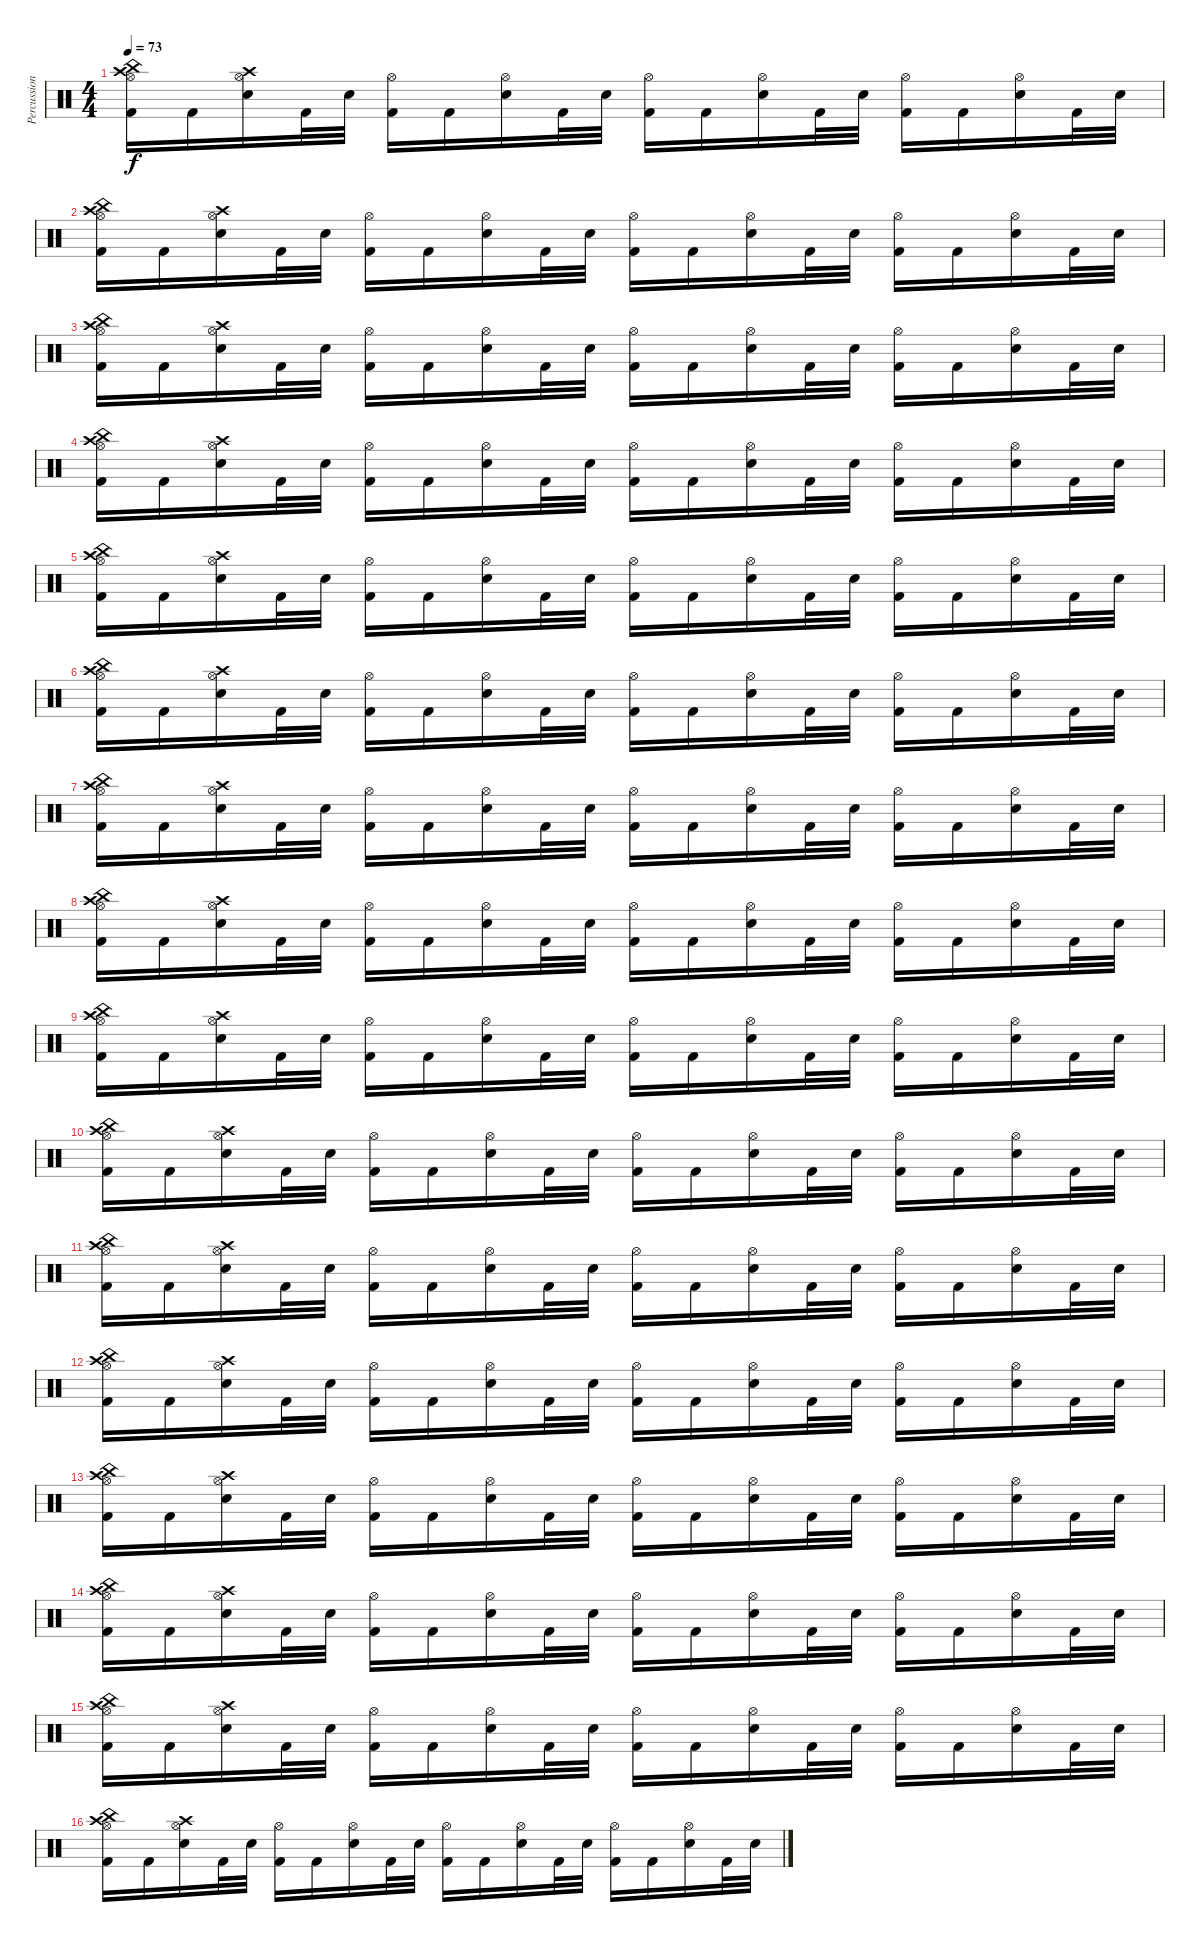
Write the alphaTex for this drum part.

\track ("Percussion" "Percussion") {instrument percussion}
\staff {score}
\articulation defaults
\ts (4 4)
\tempo 73
\clef neutral
\ks c
("China (hit)" "Crash high (hit)" "Hi-Hat (open)" "Kick (hit) 2").16{dy f} "Kick (hit) 2".16 ("Crash high (hit)" "Hi-Hat (open)" "Electric Snare (hit)").16 "Kick (hit) 2".32 "Electric Snare (hit)".32 ("Hi-Hat (open)" "Kick (hit) 2").16 "Kick (hit) 2".16 ("Hi-Hat (open)" "Electric Snare (hit)").16 "Kick (hit) 2".32 "Electric Snare (hit)".32 ("Hi-Hat (open)" "Kick (hit) 2").16 "Kick (hit) 2".16 ("Hi-Hat (open)" "Electric Snare (hit)").16 "Kick (hit) 2".32 "Electric Snare (hit)".32 ("Hi-Hat (open)" "Kick (hit) 2").16 "Kick (hit) 2".16 ("Hi-Hat (open)" "Electric Snare (hit)").16 "Kick (hit) 2".32 "Electric Snare (hit)".32 |
("China (hit)" "Crash high (hit)" "Hi-Hat (open)" "Kick (hit) 2").16 "Kick (hit) 2".16 ("Crash high (hit)" "Hi-Hat (open)" "Electric Snare (hit)").16 "Kick (hit) 2".32 "Electric Snare (hit)".32 ("Hi-Hat (open)" "Kick (hit) 2").16 "Kick (hit) 2".16 ("Hi-Hat (open)" "Electric Snare (hit)").16 "Kick (hit) 2".32 "Electric Snare (hit)".32 ("Hi-Hat (open)" "Kick (hit) 2").16 "Kick (hit) 2".16 ("Hi-Hat (open)" "Electric Snare (hit)").16 "Kick (hit) 2".32 "Electric Snare (hit)".32 ("Hi-Hat (open)" "Kick (hit) 2").16 "Kick (hit) 2".16 ("Hi-Hat (open)" "Electric Snare (hit)").16 "Kick (hit) 2".32 "Electric Snare (hit)".32 |
("China (hit)" "Crash high (hit)" "Hi-Hat (open)" "Kick (hit) 2").16 "Kick (hit) 2".16 ("Crash high (hit)" "Hi-Hat (open)" "Electric Snare (hit)").16 "Kick (hit) 2".32 "Electric Snare (hit)".32 ("Hi-Hat (open)" "Kick (hit) 2").16 "Kick (hit) 2".16 ("Hi-Hat (open)" "Electric Snare (hit)").16 "Kick (hit) 2".32 "Electric Snare (hit)".32 ("Hi-Hat (open)" "Kick (hit) 2").16 "Kick (hit) 2".16 ("Hi-Hat (open)" "Electric Snare (hit)").16 "Kick (hit) 2".32 "Electric Snare (hit)".32 ("Hi-Hat (open)" "Kick (hit) 2").16 "Kick (hit) 2".16 ("Hi-Hat (open)" "Electric Snare (hit)").16 "Kick (hit) 2".32 "Electric Snare (hit)".32 |
("China (hit)" "Crash high (hit)" "Hi-Hat (open)" "Kick (hit) 2").16 "Kick (hit) 2".16 ("Crash high (hit)" "Hi-Hat (open)" "Electric Snare (hit)").16 "Kick (hit) 2".32 "Electric Snare (hit)".32 ("Hi-Hat (open)" "Kick (hit) 2").16 "Kick (hit) 2".16 ("Hi-Hat (open)" "Electric Snare (hit)").16 "Kick (hit) 2".32 "Electric Snare (hit)".32 ("Hi-Hat (open)" "Kick (hit) 2").16 "Kick (hit) 2".16 ("Hi-Hat (open)" "Electric Snare (hit)").16 "Kick (hit) 2".32 "Electric Snare (hit)".32 ("Hi-Hat (open)" "Kick (hit) 2").16 "Kick (hit) 2".16 ("Hi-Hat (open)" "Electric Snare (hit)").16 "Kick (hit) 2".32 "Electric Snare (hit)".32 |
("China (hit)" "Crash high (hit)" "Hi-Hat (open)" "Kick (hit) 2").16 "Kick (hit) 2".16 ("Crash high (hit)" "Hi-Hat (open)" "Electric Snare (hit)").16 "Kick (hit) 2".32 "Electric Snare (hit)".32 ("Hi-Hat (open)" "Kick (hit) 2").16 "Kick (hit) 2".16 ("Hi-Hat (open)" "Electric Snare (hit)").16 "Kick (hit) 2".32 "Electric Snare (hit)".32 ("Hi-Hat (open)" "Kick (hit) 2").16 "Kick (hit) 2".16 ("Hi-Hat (open)" "Electric Snare (hit)").16 "Kick (hit) 2".32 "Electric Snare (hit)".32 ("Hi-Hat (open)" "Kick (hit) 2").16 "Kick (hit) 2".16 ("Hi-Hat (open)" "Electric Snare (hit)").16 "Kick (hit) 2".32 "Electric Snare (hit)".32 |
("China (hit)" "Crash high (hit)" "Hi-Hat (open)" "Kick (hit) 2").16 "Kick (hit) 2".16 ("Crash high (hit)" "Hi-Hat (open)" "Electric Snare (hit)").16 "Kick (hit) 2".32 "Electric Snare (hit)".32 ("Hi-Hat (open)" "Kick (hit) 2").16 "Kick (hit) 2".16 ("Hi-Hat (open)" "Electric Snare (hit)").16 "Kick (hit) 2".32 "Electric Snare (hit)".32 ("Hi-Hat (open)" "Kick (hit) 2").16 "Kick (hit) 2".16 ("Hi-Hat (open)" "Electric Snare (hit)").16 "Kick (hit) 2".32 "Electric Snare (hit)".32 ("Hi-Hat (open)" "Kick (hit) 2").16 "Kick (hit) 2".16 ("Hi-Hat (open)" "Electric Snare (hit)").16 "Kick (hit) 2".32 "Electric Snare (hit)".32 |
("China (hit)" "Crash high (hit)" "Hi-Hat (open)" "Kick (hit) 2").16 "Kick (hit) 2".16 ("Crash high (hit)" "Hi-Hat (open)" "Electric Snare (hit)").16 "Kick (hit) 2".32 "Electric Snare (hit)".32 ("Hi-Hat (open)" "Kick (hit) 2").16 "Kick (hit) 2".16 ("Hi-Hat (open)" "Electric Snare (hit)").16 "Kick (hit) 2".32 "Electric Snare (hit)".32 ("Hi-Hat (open)" "Kick (hit) 2").16 "Kick (hit) 2".16 ("Hi-Hat (open)" "Electric Snare (hit)").16 "Kick (hit) 2".32 "Electric Snare (hit)".32 ("Hi-Hat (open)" "Kick (hit) 2").16 "Kick (hit) 2".16 ("Hi-Hat (open)" "Electric Snare (hit)").16 "Kick (hit) 2".32 "Electric Snare (hit)".32 |
("China (hit)" "Crash high (hit)" "Hi-Hat (open)" "Kick (hit) 2").16 "Kick (hit) 2".16 ("Crash high (hit)" "Hi-Hat (open)" "Electric Snare (hit)").16 "Kick (hit) 2".32 "Electric Snare (hit)".32 ("Hi-Hat (open)" "Kick (hit) 2").16 "Kick (hit) 2".16 ("Hi-Hat (open)" "Electric Snare (hit)").16 "Kick (hit) 2".32 "Electric Snare (hit)".32 ("Hi-Hat (open)" "Kick (hit) 2").16 "Kick (hit) 2".16 ("Hi-Hat (open)" "Electric Snare (hit)").16 "Kick (hit) 2".32 "Electric Snare (hit)".32 ("Hi-Hat (open)" "Kick (hit) 2").16 "Kick (hit) 2".16 ("Hi-Hat (open)" "Electric Snare (hit)").16 "Kick (hit) 2".32 "Electric Snare (hit)".32 |
("China (hit)" "Crash high (hit)" "Hi-Hat (open)" "Kick (hit) 2").16 "Kick (hit) 2".16 ("Crash high (hit)" "Hi-Hat (open)" "Electric Snare (hit)").16 "Kick (hit) 2".32 "Electric Snare (hit)".32 ("Hi-Hat (open)" "Kick (hit) 2").16 "Kick (hit) 2".16 ("Hi-Hat (open)" "Electric Snare (hit)").16 "Kick (hit) 2".32 "Electric Snare (hit)".32 ("Hi-Hat (open)" "Kick (hit) 2").16 "Kick (hit) 2".16 ("Hi-Hat (open)" "Electric Snare (hit)").16 "Kick (hit) 2".32 "Electric Snare (hit)".32 ("Hi-Hat (open)" "Kick (hit) 2").16 "Kick (hit) 2".16 ("Hi-Hat (open)" "Electric Snare (hit)").16 "Kick (hit) 2".32 "Electric Snare (hit)".32 |
("China (hit)" "Crash high (hit)" "Hi-Hat (open)" "Kick (hit) 2").16 "Kick (hit) 2".16 ("Crash high (hit)" "Hi-Hat (open)" "Electric Snare (hit)").16 "Kick (hit) 2".32 "Electric Snare (hit)".32 ("Hi-Hat (open)" "Kick (hit) 2").16 "Kick (hit) 2".16 ("Hi-Hat (open)" "Electric Snare (hit)").16 "Kick (hit) 2".32 "Electric Snare (hit)".32 ("Hi-Hat (open)" "Kick (hit) 2").16 "Kick (hit) 2".16 ("Hi-Hat (open)" "Electric Snare (hit)").16 "Kick (hit) 2".32 "Electric Snare (hit)".32 ("Hi-Hat (open)" "Kick (hit) 2").16 "Kick (hit) 2".16 ("Hi-Hat (open)" "Electric Snare (hit)").16 "Kick (hit) 2".32 "Electric Snare (hit)".32 |
("China (hit)" "Crash high (hit)" "Hi-Hat (open)" "Kick (hit) 2").16 "Kick (hit) 2".16 ("Crash high (hit)" "Hi-Hat (open)" "Electric Snare (hit)").16 "Kick (hit) 2".32 "Electric Snare (hit)".32 ("Hi-Hat (open)" "Kick (hit) 2").16 "Kick (hit) 2".16 ("Hi-Hat (open)" "Electric Snare (hit)").16 "Kick (hit) 2".32 "Electric Snare (hit)".32 ("Hi-Hat (open)" "Kick (hit) 2").16 "Kick (hit) 2".16 ("Hi-Hat (open)" "Electric Snare (hit)").16 "Kick (hit) 2".32 "Electric Snare (hit)".32 ("Hi-Hat (open)" "Kick (hit) 2").16 "Kick (hit) 2".16 ("Hi-Hat (open)" "Electric Snare (hit)").16 "Kick (hit) 2".32 "Electric Snare (hit)".32 |
("China (hit)" "Crash high (hit)" "Hi-Hat (open)" "Kick (hit) 2").16 "Kick (hit) 2".16 ("Crash high (hit)" "Hi-Hat (open)" "Electric Snare (hit)").16 "Kick (hit) 2".32 "Electric Snare (hit)".32 ("Hi-Hat (open)" "Kick (hit) 2").16 "Kick (hit) 2".16 ("Hi-Hat (open)" "Electric Snare (hit)").16 "Kick (hit) 2".32 "Electric Snare (hit)".32 ("Hi-Hat (open)" "Kick (hit) 2").16 "Kick (hit) 2".16 ("Hi-Hat (open)" "Electric Snare (hit)").16 "Kick (hit) 2".32 "Electric Snare (hit)".32 ("Hi-Hat (open)" "Kick (hit) 2").16 "Kick (hit) 2".16 ("Hi-Hat (open)" "Electric Snare (hit)").16 "Kick (hit) 2".32 "Electric Snare (hit)".32 |
("China (hit)" "Crash high (hit)" "Hi-Hat (open)" "Kick (hit) 2").16 "Kick (hit) 2".16 ("Crash high (hit)" "Hi-Hat (open)" "Electric Snare (hit)").16 "Kick (hit) 2".32 "Electric Snare (hit)".32 ("Hi-Hat (open)" "Kick (hit) 2").16 "Kick (hit) 2".16 ("Hi-Hat (open)" "Electric Snare (hit)").16 "Kick (hit) 2".32 "Electric Snare (hit)".32 ("Hi-Hat (open)" "Kick (hit) 2").16 "Kick (hit) 2".16 ("Hi-Hat (open)" "Electric Snare (hit)").16 "Kick (hit) 2".32 "Electric Snare (hit)".32 ("Hi-Hat (open)" "Kick (hit) 2").16 "Kick (hit) 2".16 ("Hi-Hat (open)" "Electric Snare (hit)").16 "Kick (hit) 2".32 "Electric Snare (hit)".32 |
("China (hit)" "Crash high (hit)" "Hi-Hat (open)" "Kick (hit) 2").16 "Kick (hit) 2".16 ("Crash high (hit)" "Hi-Hat (open)" "Electric Snare (hit)").16 "Kick (hit) 2".32 "Electric Snare (hit)".32 ("Hi-Hat (open)" "Kick (hit) 2").16 "Kick (hit) 2".16 ("Hi-Hat (open)" "Electric Snare (hit)").16 "Kick (hit) 2".32 "Electric Snare (hit)".32 ("Hi-Hat (open)" "Kick (hit) 2").16 "Kick (hit) 2".16 ("Hi-Hat (open)" "Electric Snare (hit)").16 "Kick (hit) 2".32 "Electric Snare (hit)".32 ("Hi-Hat (open)" "Kick (hit) 2").16 "Kick (hit) 2".16 ("Hi-Hat (open)" "Electric Snare (hit)").16 "Kick (hit) 2".32 "Electric Snare (hit)".32 |
("China (hit)" "Crash high (hit)" "Hi-Hat (open)" "Kick (hit) 2").16 "Kick (hit) 2".16 ("Crash high (hit)" "Hi-Hat (open)" "Electric Snare (hit)").16 "Kick (hit) 2".32 "Electric Snare (hit)".32 ("Hi-Hat (open)" "Kick (hit) 2").16 "Kick (hit) 2".16 ("Hi-Hat (open)" "Electric Snare (hit)").16 "Kick (hit) 2".32 "Electric Snare (hit)".32 ("Hi-Hat (open)" "Kick (hit) 2").16 "Kick (hit) 2".16 ("Hi-Hat (open)" "Electric Snare (hit)").16 "Kick (hit) 2".32 "Electric Snare (hit)".32 ("Hi-Hat (open)" "Kick (hit) 2").16 "Kick (hit) 2".16 ("Hi-Hat (open)" "Electric Snare (hit)").16 "Kick (hit) 2".32 "Electric Snare (hit)".32 |
("China (hit)" "Crash high (hit)" "Hi-Hat (open)" "Kick (hit) 2").16 "Kick (hit) 2".16 ("Crash high (hit)" "Hi-Hat (open)" "Electric Snare (hit)").16 "Kick (hit) 2".32 "Electric Snare (hit)".32 ("Hi-Hat (open)" "Kick (hit) 2").16 "Kick (hit) 2".16 ("Hi-Hat (open)" "Electric Snare (hit)").16 "Kick (hit) 2".32 "Electric Snare (hit)".32 ("Hi-Hat (open)" "Kick (hit) 2").16 "Kick (hit) 2".16 ("Hi-Hat (open)" "Electric Snare (hit)").16 "Kick (hit) 2".32 "Electric Snare (hit)".32 ("Hi-Hat (open)" "Kick (hit) 2").16 "Kick (hit) 2".16 ("Hi-Hat (open)" "Electric Snare (hit)").16 "Kick (hit) 2".32 "Electric Snare (hit)".32
